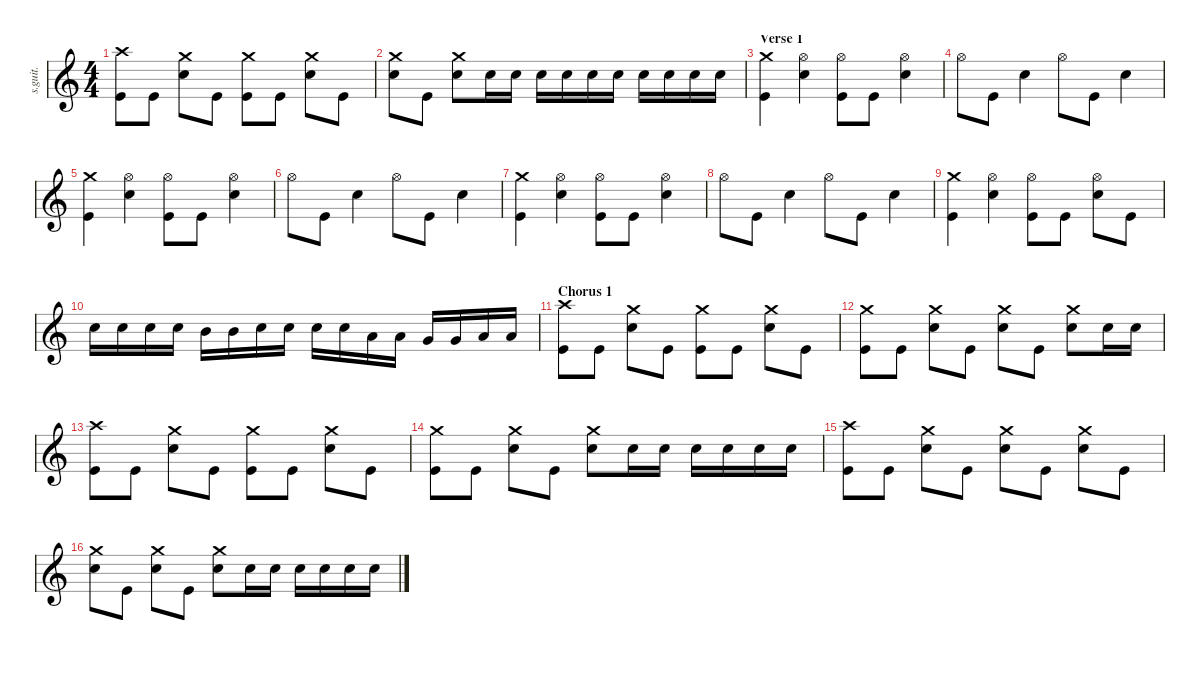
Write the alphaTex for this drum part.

\defaultSystemsLayout 4
\hideDynamics
\bracketExtendMode nobrackets
\track ("Joey Jordison" "s.guit.") {instrument percussion}
\staff {score}
\articulation defaults
\ts (4 4)
\tempo (210 hide)
\clef g2
\ks c
("Crash high (hit)" "Kick (hit)").8{lyrics (0 "") lyrics (1 "") lyrics (2 "") lyrics (3 "") lyrics (4 "") dy ff} "Kick (hit)".8{lyrics (0 "") lyrics (1 "") lyrics (2 "") lyrics (3 "") lyrics (4 "")} ("Crash medium (hit)" "Snare (hit) 2").8{lyrics (0 "") lyrics (1 "") lyrics (2 "") lyrics (3 "") lyrics (4 "")} "Kick (hit)".8{lyrics (0 "") lyrics (1 "") lyrics (2 "") lyrics (3 "") lyrics (4 "")} ("Crash medium (hit)" "Kick (hit)").8{lyrics (0 "") lyrics (1 "") lyrics (2 "") lyrics (3 "") lyrics (4 "")} "Kick (hit)".8{lyrics (0 "") lyrics (1 "") lyrics (2 "") lyrics (3 "") lyrics (4 "")} ("Crash medium (hit)" "Snare (hit) 2").8{lyrics (0 "") lyrics (1 "") lyrics (2 "") lyrics (3 "") lyrics (4 "")} "Kick (hit)".8{lyrics (0 "") lyrics (1 "") lyrics (2 "") lyrics (3 "") lyrics (4 "")} |
("Crash medium (hit)" "Snare (hit) 2").8{lyrics (0 "") lyrics (1 "") lyrics (2 "") lyrics (3 "") lyrics (4 "")} "Kick (hit)".8{lyrics (0 "") lyrics (1 "") lyrics (2 "") lyrics (3 "") lyrics (4 "")} ("Crash medium (hit)" "Snare (hit) 2").8{lyrics (0 "") lyrics (1 "") lyrics (2 "") lyrics (3 "") lyrics (4 "")} "Snare (hit) 2".16{lyrics (0 "") lyrics (1 "") lyrics (2 "") lyrics (3 "") lyrics (4 "")} "Snare (hit) 2".16{lyrics (0 "") lyrics (1 "") lyrics (2 "") lyrics (3 "") lyrics (4 "")} "Snare (hit) 2".16{lyrics (0 "") lyrics (1 "") lyrics (2 "") lyrics (3 "") lyrics (4 "")} "Snare (hit) 2".16{lyrics (0 "") lyrics (1 "") lyrics (2 "") lyrics (3 "") lyrics (4 "")} "Snare (hit) 2".16{lyrics (0 "") lyrics (1 "") lyrics (2 "") lyrics (3 "") lyrics (4 "")} "Snare (hit) 2".16{lyrics (0 "") lyrics (1 "") lyrics (2 "") lyrics (3 "") lyrics (4 "")} "Snare (hit) 2".16{lyrics (0 "") lyrics (1 "") lyrics (2 "") lyrics (3 "") lyrics (4 "")} "Snare (hit) 2".16{lyrics (0 "") lyrics (1 "") lyrics (2 "") lyrics (3 "") lyrics (4 "")} "Snare (hit) 2".16{lyrics (0 "") lyrics (1 "") lyrics (2 "") lyrics (3 "") lyrics (4 "")} "Snare (hit) 2".16{lyrics (0 "") lyrics (1 "") lyrics (2 "") lyrics (3 "") lyrics (4 "")} |
\section ("" "Verse 1")
("Crash medium (hit)" "Kick (hit)").4{lyrics (0 "") lyrics (1 "") lyrics (2 "") lyrics (3 "") lyrics (4 "")} ("Hi-Hat (open)" "Snare (hit) 2").4{lyrics (0 "") lyrics (1 "") lyrics (2 "") lyrics (3 "") lyrics (4 "")} ("Hi-Hat (open)" "Kick (hit)").8{lyrics (0 "") lyrics (1 "") lyrics (2 "") lyrics (3 "") lyrics (4 "")} "Kick (hit)".8{lyrics (0 "") lyrics (1 "") lyrics (2 "") lyrics (3 "") lyrics (4 "")} ("Hi-Hat (open)" "Snare (hit) 2").4{lyrics (0 "") lyrics (1 "") lyrics (2 "") lyrics (3 "") lyrics (4 "")} |
"Hi-Hat (open)".8{lyrics (0 "") lyrics (1 "") lyrics (2 "") lyrics (3 "") lyrics (4 "")} "Kick (hit)".8{lyrics (0 "") lyrics (1 "") lyrics (2 "") lyrics (3 "") lyrics (4 "")} "Snare (hit) 2".4{lyrics (0 "") lyrics (1 "") lyrics (2 "") lyrics (3 "") lyrics (4 "")} "Hi-Hat (open)".8{lyrics (0 "") lyrics (1 "") lyrics (2 "") lyrics (3 "") lyrics (4 "")} "Kick (hit)".8{lyrics (0 "") lyrics (1 "") lyrics (2 "") lyrics (3 "") lyrics (4 "")} "Snare (hit) 2".4{lyrics (0 "") lyrics (1 "") lyrics (2 "") lyrics (3 "") lyrics (4 "")} |
("Crash medium (hit)" "Kick (hit)").4{lyrics (0 "") lyrics (1 "") lyrics (2 "") lyrics (3 "") lyrics (4 "")} ("Hi-Hat (open)" "Snare (hit) 2").4{lyrics (0 "") lyrics (1 "") lyrics (2 "") lyrics (3 "") lyrics (4 "")} ("Hi-Hat (open)" "Kick (hit)").8{lyrics (0 "") lyrics (1 "") lyrics (2 "") lyrics (3 "") lyrics (4 "")} "Kick (hit)".8{lyrics (0 "") lyrics (1 "") lyrics (2 "") lyrics (3 "") lyrics (4 "")} ("Hi-Hat (open)" "Snare (hit) 2").4{lyrics (0 "") lyrics (1 "") lyrics (2 "") lyrics (3 "") lyrics (4 "")} |
"Hi-Hat (open)".8{lyrics (0 "") lyrics (1 "") lyrics (2 "") lyrics (3 "") lyrics (4 "")} "Kick (hit)".8{lyrics (0 "") lyrics (1 "") lyrics (2 "") lyrics (3 "") lyrics (4 "")} "Snare (hit) 2".4{lyrics (0 "") lyrics (1 "") lyrics (2 "") lyrics (3 "") lyrics (4 "")} "Hi-Hat (open)".8{lyrics (0 "") lyrics (1 "") lyrics (2 "") lyrics (3 "") lyrics (4 "")} "Kick (hit)".8{lyrics (0 "") lyrics (1 "") lyrics (2 "") lyrics (3 "") lyrics (4 "")} "Snare (hit) 2".4{lyrics (0 "") lyrics (1 "") lyrics (2 "") lyrics (3 "") lyrics (4 "")} |
("Crash medium (hit)" "Kick (hit)").4{lyrics (0 "") lyrics (1 "") lyrics (2 "") lyrics (3 "") lyrics (4 "")} ("Hi-Hat (open)" "Snare (hit) 2").4{lyrics (0 "") lyrics (1 "") lyrics (2 "") lyrics (3 "") lyrics (4 "")} ("Hi-Hat (open)" "Kick (hit)").8{lyrics (0 "") lyrics (1 "") lyrics (2 "") lyrics (3 "") lyrics (4 "")} "Kick (hit)".8{lyrics (0 "") lyrics (1 "") lyrics (2 "") lyrics (3 "") lyrics (4 "")} ("Hi-Hat (open)" "Snare (hit) 2").4{lyrics (0 "") lyrics (1 "") lyrics (2 "") lyrics (3 "") lyrics (4 "")} |
"Hi-Hat (open)".8{lyrics (0 "") lyrics (1 "") lyrics (2 "") lyrics (3 "") lyrics (4 "")} "Kick (hit)".8{lyrics (0 "") lyrics (1 "") lyrics (2 "") lyrics (3 "") lyrics (4 "")} "Snare (hit) 2".4{lyrics (0 "") lyrics (1 "") lyrics (2 "") lyrics (3 "") lyrics (4 "")} "Hi-Hat (open)".8{lyrics (0 "") lyrics (1 "") lyrics (2 "") lyrics (3 "") lyrics (4 "")} "Kick (hit)".8{lyrics (0 "") lyrics (1 "") lyrics (2 "") lyrics (3 "") lyrics (4 "")} "Snare (hit) 2".4{lyrics (0 "") lyrics (1 "") lyrics (2 "") lyrics (3 "") lyrics (4 "")} |
("Crash medium (hit)" "Kick (hit)").4{lyrics (0 "") lyrics (1 "") lyrics (2 "") lyrics (3 "") lyrics (4 "")} ("Hi-Hat (open)" "Snare (hit) 2").4{lyrics (0 "") lyrics (1 "") lyrics (2 "") lyrics (3 "") lyrics (4 "")} ("Hi-Hat (open)" "Kick (hit)").8{lyrics (0 "") lyrics (1 "") lyrics (2 "") lyrics (3 "") lyrics (4 "")} "Kick (hit)".8{lyrics (0 "") lyrics (1 "") lyrics (2 "") lyrics (3 "") lyrics (4 "")} ("Hi-Hat (open)" "Snare (hit) 2").8{lyrics (0 "") lyrics (1 "") lyrics (2 "") lyrics (3 "") lyrics (4 "")} "Kick (hit)".8{lyrics (0 "") lyrics (1 "") lyrics (2 "") lyrics (3 "") lyrics (4 "")} |
"Snare (hit) 2".16{lyrics (0 "") lyrics (1 "") lyrics (2 "") lyrics (3 "") lyrics (4 "")} "Snare (hit) 2".16{lyrics (0 "") lyrics (1 "") lyrics (2 "") lyrics (3 "") lyrics (4 "")} "Snare (hit) 2".16{lyrics (0 "") lyrics (1 "") lyrics (2 "") lyrics (3 "") lyrics (4 "")} "Snare (hit) 2".16{lyrics (0 "") lyrics (1 "") lyrics (2 "") lyrics (3 "") lyrics (4 "")} "Mid Tom (hit)".16{lyrics (0 "") lyrics (1 "") lyrics (2 "") lyrics (3 "") lyrics (4 "")} "Mid Tom (hit)".16{lyrics (0 "") lyrics (1 "") lyrics (2 "") lyrics (3 "") lyrics (4 "")} "Snare (hit) 2".16{lyrics (0 "") lyrics (1 "") lyrics (2 "") lyrics (3 "") lyrics (4 "")} "Snare (hit) 2".16{lyrics (0 "") lyrics (1 "") lyrics (2 "") lyrics (3 "") lyrics (4 "")} "Snare (hit) 2".16{lyrics (0 "") lyrics (1 "") lyrics (2 "") lyrics (3 "") lyrics (4 "")} "Snare (hit) 2".16{lyrics (0 "") lyrics (1 "") lyrics (2 "") lyrics (3 "") lyrics (4 "")} "Low Tom (hit)".16{lyrics (0 "") lyrics (1 "") lyrics (2 "") lyrics (3 "") lyrics (4 "")} "Low Tom (hit)".16{lyrics (0 "") lyrics (1 "") lyrics (2 "") lyrics (3 "") lyrics (4 "")} "Very Low Tom (hit)".16{lyrics (0 "") lyrics (1 "") lyrics (2 "") lyrics (3 "") lyrics (4 "")} "Very Low Tom (hit)".16{lyrics (0 "") lyrics (1 "") lyrics (2 "") lyrics (3 "") lyrics (4 "")} "Low Floor Tom (hit)".16{lyrics (0 "") lyrics (1 "") lyrics (2 "") lyrics (3 "") lyrics (4 "")} "Low Floor Tom (hit)".16{lyrics (0 "") lyrics (1 "") lyrics (2 "") lyrics (3 "") lyrics (4 "")} |
\section ("" "Chorus 1")
("Crash high (hit)" "Kick (hit)").8{lyrics (0 "") lyrics (1 "") lyrics (2 "") lyrics (3 "") lyrics (4 "")} "Kick (hit)".8{lyrics (0 "") lyrics (1 "") lyrics (2 "") lyrics (3 "") lyrics (4 "")} ("Crash medium (hit)" "Snare (hit) 2").8{lyrics (0 "") lyrics (1 "") lyrics (2 "") lyrics (3 "") lyrics (4 "")} "Kick (hit)".8{lyrics (0 "") lyrics (1 "") lyrics (2 "") lyrics (3 "") lyrics (4 "")} ("Crash medium (hit)" "Kick (hit)").8{lyrics (0 "") lyrics (1 "") lyrics (2 "") lyrics (3 "") lyrics (4 "")} "Kick (hit)".8{lyrics (0 "") lyrics (1 "") lyrics (2 "") lyrics (3 "") lyrics (4 "")} ("Crash medium (hit)" "Snare (hit) 2").8{lyrics (0 "") lyrics (1 "") lyrics (2 "") lyrics (3 "") lyrics (4 "")} "Kick (hit)".8{lyrics (0 "") lyrics (1 "") lyrics (2 "") lyrics (3 "") lyrics (4 "")} |
("Crash medium (hit)" "Kick (hit)").8{lyrics (0 "") lyrics (1 "") lyrics (2 "") lyrics (3 "") lyrics (4 "")} "Kick (hit)".8{lyrics (0 "") lyrics (1 "") lyrics (2 "") lyrics (3 "") lyrics (4 "")} ("Crash medium (hit)" "Snare (hit) 2").8{lyrics (0 "") lyrics (1 "") lyrics (2 "") lyrics (3 "") lyrics (4 "")} "Kick (hit)".8{lyrics (0 "") lyrics (1 "") lyrics (2 "") lyrics (3 "") lyrics (4 "")} ("Crash medium (hit)" "Snare (hit) 2").8{lyrics (0 "") lyrics (1 "") lyrics (2 "") lyrics (3 "") lyrics (4 "")} "Kick (hit)".8{lyrics (0 "") lyrics (1 "") lyrics (2 "") lyrics (3 "") lyrics (4 "")} ("Crash medium (hit)" "Snare (hit) 2").8{lyrics (0 "") lyrics (1 "") lyrics (2 "") lyrics (3 "") lyrics (4 "")} "Snare (hit) 2".16{lyrics (0 "") lyrics (1 "") lyrics (2 "") lyrics (3 "") lyrics (4 "")} "Snare (hit) 2".16{lyrics (0 "") lyrics (1 "") lyrics (2 "") lyrics (3 "") lyrics (4 "")} |
("Crash high (hit)" "Kick (hit)").8{lyrics (0 "") lyrics (1 "") lyrics (2 "") lyrics (3 "") lyrics (4 "")} "Kick (hit)".8{lyrics (0 "") lyrics (1 "") lyrics (2 "") lyrics (3 "") lyrics (4 "")} ("Crash medium (hit)" "Snare (hit) 2").8{lyrics (0 "") lyrics (1 "") lyrics (2 "") lyrics (3 "") lyrics (4 "")} "Kick (hit)".8{lyrics (0 "") lyrics (1 "") lyrics (2 "") lyrics (3 "") lyrics (4 "")} ("Crash medium (hit)" "Kick (hit)").8{lyrics (0 "") lyrics (1 "") lyrics (2 "") lyrics (3 "") lyrics (4 "")} "Kick (hit)".8{lyrics (0 "") lyrics (1 "") lyrics (2 "") lyrics (3 "") lyrics (4 "")} ("Crash medium (hit)" "Snare (hit) 2").8{lyrics (0 "") lyrics (1 "") lyrics (2 "") lyrics (3 "") lyrics (4 "")} "Kick (hit)".8{lyrics (0 "") lyrics (1 "") lyrics (2 "") lyrics (3 "") lyrics (4 "")} |
("Crash medium (hit)" "Kick (hit)").8{lyrics (0 "") lyrics (1 "") lyrics (2 "") lyrics (3 "") lyrics (4 "")} "Kick (hit)".8{lyrics (0 "") lyrics (1 "") lyrics (2 "") lyrics (3 "") lyrics (4 "")} ("Crash medium (hit)" "Snare (hit) 2").8{lyrics (0 "") lyrics (1 "") lyrics (2 "") lyrics (3 "") lyrics (4 "")} "Kick (hit)".8{lyrics (0 "") lyrics (1 "") lyrics (2 "") lyrics (3 "") lyrics (4 "")} ("Snare (hit) 2" "Crash medium (hit)").8{lyrics (0 "") lyrics (1 "") lyrics (2 "") lyrics (3 "") lyrics (4 "")} "Snare (hit) 2".16{lyrics (0 "") lyrics (1 "") lyrics (2 "") lyrics (3 "") lyrics (4 "")} "Snare (hit) 2".16{lyrics (0 "") lyrics (1 "") lyrics (2 "") lyrics (3 "") lyrics (4 "")} "Snare (hit) 2".16{lyrics (0 "") lyrics (1 "") lyrics (2 "") lyrics (3 "") lyrics (4 "")} "Snare (hit) 2".16{lyrics (0 "") lyrics (1 "") lyrics (2 "") lyrics (3 "") lyrics (4 "")} "Snare (hit) 2".16{lyrics (0 "") lyrics (1 "") lyrics (2 "") lyrics (3 "") lyrics (4 "")} "Snare (hit) 2".16{lyrics (0 "") lyrics (1 "") lyrics (2 "") lyrics (3 "") lyrics (4 "")} |
("Crash high (hit)" "Kick (hit)").8{lyrics (0 "") lyrics (1 "") lyrics (2 "") lyrics (3 "") lyrics (4 "")} "Kick (hit)".8{lyrics (0 "") lyrics (1 "") lyrics (2 "") lyrics (3 "") lyrics (4 "")} ("Crash medium (hit)" "Snare (hit) 2").8{lyrics (0 "") lyrics (1 "") lyrics (2 "") lyrics (3 "") lyrics (4 "")} "Kick (hit)".8{lyrics (0 "") lyrics (1 "") lyrics (2 "") lyrics (3 "") lyrics (4 "")} ("Crash medium (hit)" "Snare (hit) 2").8{lyrics (0 "") lyrics (1 "") lyrics (2 "") lyrics (3 "") lyrics (4 "")} "Kick (hit)".8{lyrics (0 "") lyrics (1 "") lyrics (2 "") lyrics (3 "") lyrics (4 "")} ("Crash medium (hit)" "Snare (hit) 2").8{lyrics (0 "") lyrics (1 "") lyrics (2 "") lyrics (3 "") lyrics (4 "")} "Kick (hit)".8{lyrics (0 "") lyrics (1 "") lyrics (2 "") lyrics (3 "") lyrics (4 "")} |
("Crash medium (hit)" "Snare (hit) 2").8{lyrics (0 "") lyrics (1 "") lyrics (2 "") lyrics (3 "") lyrics (4 "")} "Kick (hit)".8{lyrics (0 "") lyrics (1 "") lyrics (2 "") lyrics (3 "") lyrics (4 "")} ("Crash medium (hit)" "Snare (hit) 2").8{lyrics (0 "") lyrics (1 "") lyrics (2 "") lyrics (3 "") lyrics (4 "")} "Kick (hit)".8{lyrics (0 "") lyrics (1 "") lyrics (2 "") lyrics (3 "") lyrics (4 "")} ("Crash medium (hit)" "Snare (hit) 2").8{lyrics (0 "") lyrics (1 "") lyrics (2 "") lyrics (3 "") lyrics (4 "")} "Snare (hit) 2".16{lyrics (0 "") lyrics (1 "") lyrics (2 "") lyrics (3 "") lyrics (4 "")} "Snare (hit) 2".16{lyrics (0 "") lyrics (1 "") lyrics (2 "") lyrics (3 "") lyrics (4 "")} "Snare (hit) 2".16{lyrics (0 "") lyrics (1 "") lyrics (2 "") lyrics (3 "") lyrics (4 "")} "Snare (hit) 2".16{lyrics (0 "") lyrics (1 "") lyrics (2 "") lyrics (3 "") lyrics (4 "")} "Snare (hit) 2".16{lyrics (0 "") lyrics (1 "") lyrics (2 "") lyrics (3 "") lyrics (4 "")} "Snare (hit) 2".16{lyrics (0 "") lyrics (1 "") lyrics (2 "") lyrics (3 "") lyrics (4 "")}
